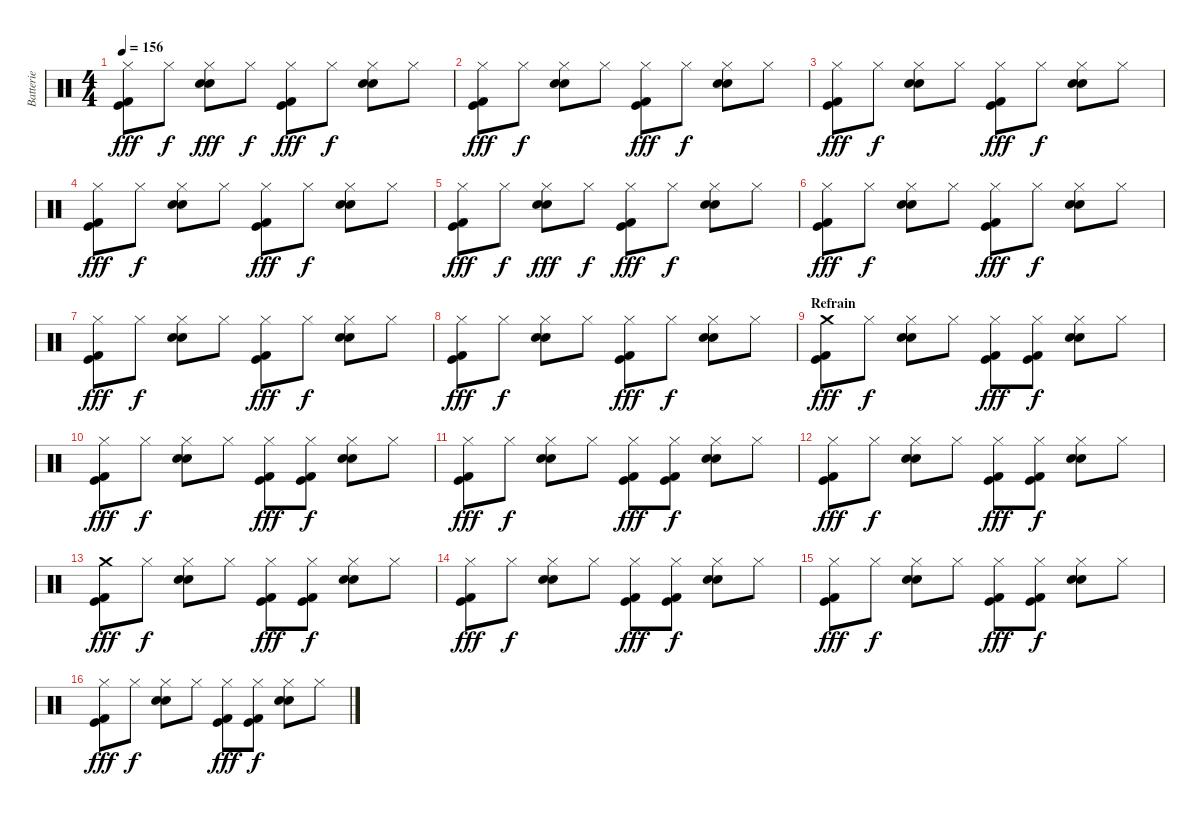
\track ("Batterie" "Batterie") {instrument percussion}
\staff {score}
\articulation defaults
\ts (4 4)
\tempo 156
\clef neutral
\ks c
("Hi-Hat (closed)" "Kick (hit)" "Kick (hit) 2").8{dy fff} "Hi-Hat (closed)".8{dy f} ("Hi-Hat (closed)" "Snare (hit) 2" "Electric Snare (hit)").8{dy fff} "Hi-Hat (closed)".8{dy f} ("Hi-Hat (closed)" "Kick (hit)" "Kick (hit) 2").8{dy fff} "Hi-Hat (closed)".8{dy f} ("Hi-Hat (closed)" "Snare (hit) 2" "Electric Snare (hit)").8 "Hi-Hat (closed)".8 |
("Hi-Hat (closed)" "Kick (hit)" "Kick (hit) 2").8{dy fff} "Hi-Hat (closed)".8{dy f} ("Hi-Hat (closed)" "Snare (hit) 2" "Electric Snare (hit)").8 "Hi-Hat (closed)".8 ("Hi-Hat (closed)" "Kick (hit)" "Kick (hit) 2").8{dy fff} "Hi-Hat (closed)".8{dy f} ("Hi-Hat (closed)" "Snare (hit) 2" "Electric Snare (hit)").8 "Hi-Hat (closed)".8 |
("Hi-Hat (closed)" "Kick (hit)" "Kick (hit) 2").8{dy fff} "Hi-Hat (closed)".8{dy f} ("Hi-Hat (closed)" "Snare (hit) 2" "Electric Snare (hit)").8 "Hi-Hat (closed)".8 ("Hi-Hat (closed)" "Kick (hit)" "Kick (hit) 2").8{dy fff} "Hi-Hat (closed)".8{dy f} ("Hi-Hat (closed)" "Snare (hit) 2" "Electric Snare (hit)").8 "Hi-Hat (closed)".8 |
("Hi-Hat (closed)" "Kick (hit)" "Kick (hit) 2").8{dy fff} "Hi-Hat (closed)".8{dy f} ("Hi-Hat (closed)" "Snare (hit) 2" "Electric Snare (hit)").8 "Hi-Hat (closed)".8 ("Hi-Hat (closed)" "Kick (hit)" "Kick (hit) 2").8{dy fff} "Hi-Hat (closed)".8{dy f} ("Hi-Hat (closed)" "Snare (hit) 2" "Electric Snare (hit)").8 "Hi-Hat (closed)".8 |
("Hi-Hat (closed)" "Kick (hit)" "Kick (hit) 2").8{dy fff} "Hi-Hat (closed)".8{dy f} ("Hi-Hat (closed)" "Snare (hit) 2" "Electric Snare (hit)").8{dy fff} "Hi-Hat (closed)".8{dy f} ("Hi-Hat (closed)" "Kick (hit)" "Kick (hit) 2").8{dy fff} "Hi-Hat (closed)".8{dy f} ("Hi-Hat (closed)" "Snare (hit) 2" "Electric Snare (hit)").8 "Hi-Hat (closed)".8 |
("Hi-Hat (closed)" "Kick (hit)" "Kick (hit) 2").8{dy fff} "Hi-Hat (closed)".8{dy f} ("Hi-Hat (closed)" "Snare (hit) 2" "Electric Snare (hit)").8 "Hi-Hat (closed)".8 ("Hi-Hat (closed)" "Kick (hit)" "Kick (hit) 2").8{dy fff} "Hi-Hat (closed)".8{dy f} ("Hi-Hat (closed)" "Snare (hit) 2" "Electric Snare (hit)").8 "Hi-Hat (closed)".8 |
("Hi-Hat (closed)" "Kick (hit)" "Kick (hit) 2").8{dy fff} "Hi-Hat (closed)".8{dy f} ("Hi-Hat (closed)" "Snare (hit) 2" "Electric Snare (hit)").8 "Hi-Hat (closed)".8 ("Hi-Hat (closed)" "Kick (hit)" "Kick (hit) 2").8{dy fff} "Hi-Hat (closed)".8{dy f} ("Hi-Hat (closed)" "Snare (hit) 2" "Electric Snare (hit)").8 "Hi-Hat (closed)".8 |
("Hi-Hat (closed)" "Kick (hit)" "Kick (hit) 2").8{dy fff} "Hi-Hat (closed)".8{dy f} ("Hi-Hat (closed)" "Snare (hit) 2" "Electric Snare (hit)").8 "Hi-Hat (closed)".8 ("Hi-Hat (closed)" "Kick (hit)" "Kick (hit) 2").8{dy fff} "Hi-Hat (closed)".8{dy f} ("Hi-Hat (closed)" "Snare (hit) 2" "Electric Snare (hit)").8 "Hi-Hat (closed)".8 |
\section ("" "Refrain")
("Crash medium (hit)" "Kick (hit)" "Kick (hit) 2").8{dy fff} "Hi-Hat (closed)".8{dy f} ("Hi-Hat (closed)" "Snare (hit) 2" "Electric Snare (hit)").8 "Hi-Hat (closed)".8 ("Hi-Hat (closed)" "Kick (hit)" "Kick (hit) 2").8{dy fff} ("Hi-Hat (closed)" "Kick (hit)" "Kick (hit) 2").8{dy f} ("Hi-Hat (closed)" "Snare (hit) 2" "Electric Snare (hit)").8 "Hi-Hat (closed)".8 |
("Hi-Hat (closed)" "Kick (hit)" "Kick (hit) 2").8{dy fff} "Hi-Hat (closed)".8{dy f} ("Hi-Hat (closed)" "Snare (hit) 2" "Electric Snare (hit)").8 "Hi-Hat (closed)".8 ("Hi-Hat (closed)" "Kick (hit)" "Kick (hit) 2").8{dy fff} ("Hi-Hat (closed)" "Kick (hit)" "Kick (hit) 2").8{dy f} ("Hi-Hat (closed)" "Snare (hit) 2" "Electric Snare (hit)").8 "Hi-Hat (closed)".8 |
("Hi-Hat (closed)" "Kick (hit)" "Kick (hit) 2").8{dy fff} "Hi-Hat (closed)".8{dy f} ("Hi-Hat (closed)" "Snare (hit) 2" "Electric Snare (hit)").8 "Hi-Hat (closed)".8 ("Hi-Hat (closed)" "Kick (hit)" "Kick (hit) 2").8{dy fff} ("Hi-Hat (closed)" "Kick (hit)" "Kick (hit) 2").8{dy f} ("Hi-Hat (closed)" "Snare (hit) 2" "Electric Snare (hit)").8 "Hi-Hat (closed)".8 |
("Hi-Hat (closed)" "Kick (hit)" "Kick (hit) 2").8{dy fff} "Hi-Hat (closed)".8{dy f} ("Hi-Hat (closed)" "Snare (hit) 2" "Electric Snare (hit)").8 "Hi-Hat (closed)".8 ("Hi-Hat (closed)" "Kick (hit)" "Kick (hit) 2").8{dy fff} ("Hi-Hat (closed)" "Kick (hit)" "Kick (hit) 2").8{dy f} ("Hi-Hat (closed)" "Snare (hit) 2" "Electric Snare (hit)").8 "Hi-Hat (closed)".8 |
("Crash medium (hit)" "Kick (hit)" "Kick (hit) 2").8{dy fff} "Hi-Hat (closed)".8{dy f} ("Hi-Hat (closed)" "Snare (hit) 2" "Electric Snare (hit)").8 "Hi-Hat (closed)".8 ("Hi-Hat (closed)" "Kick (hit)" "Kick (hit) 2").8{dy fff} ("Hi-Hat (closed)" "Kick (hit)" "Kick (hit) 2").8{dy f} ("Hi-Hat (closed)" "Snare (hit) 2" "Electric Snare (hit)").8 "Hi-Hat (closed)".8 |
("Hi-Hat (closed)" "Kick (hit)" "Kick (hit) 2").8{dy fff} "Hi-Hat (closed)".8{dy f} ("Hi-Hat (closed)" "Snare (hit) 2" "Electric Snare (hit)").8 "Hi-Hat (closed)".8 ("Hi-Hat (closed)" "Kick (hit)" "Kick (hit) 2").8{dy fff} ("Hi-Hat (closed)" "Kick (hit)" "Kick (hit) 2").8{dy f} ("Hi-Hat (closed)" "Snare (hit) 2" "Electric Snare (hit)").8 "Hi-Hat (closed)".8 |
("Hi-Hat (closed)" "Kick (hit)" "Kick (hit) 2").8{dy fff} "Hi-Hat (closed)".8{dy f} ("Hi-Hat (closed)" "Snare (hit) 2" "Electric Snare (hit)").8 "Hi-Hat (closed)".8 ("Hi-Hat (closed)" "Kick (hit)" "Kick (hit) 2").8{dy fff} ("Hi-Hat (closed)" "Kick (hit)" "Kick (hit) 2").8{dy f} ("Hi-Hat (closed)" "Snare (hit) 2" "Electric Snare (hit)").8 "Hi-Hat (closed)".8 |
("Hi-Hat (closed)" "Kick (hit)" "Kick (hit) 2").8{dy fff} "Hi-Hat (closed)".8{dy f} ("Hi-Hat (closed)" "Snare (hit) 2" "Electric Snare (hit)").8 "Hi-Hat (closed)".8 ("Hi-Hat (closed)" "Kick (hit)" "Kick (hit) 2").8{dy fff} ("Hi-Hat (closed)" "Kick (hit)" "Kick (hit) 2").8{dy f} ("Hi-Hat (closed)" "Snare (hit) 2" "Electric Snare (hit)").8 "Hi-Hat (closed)".8
